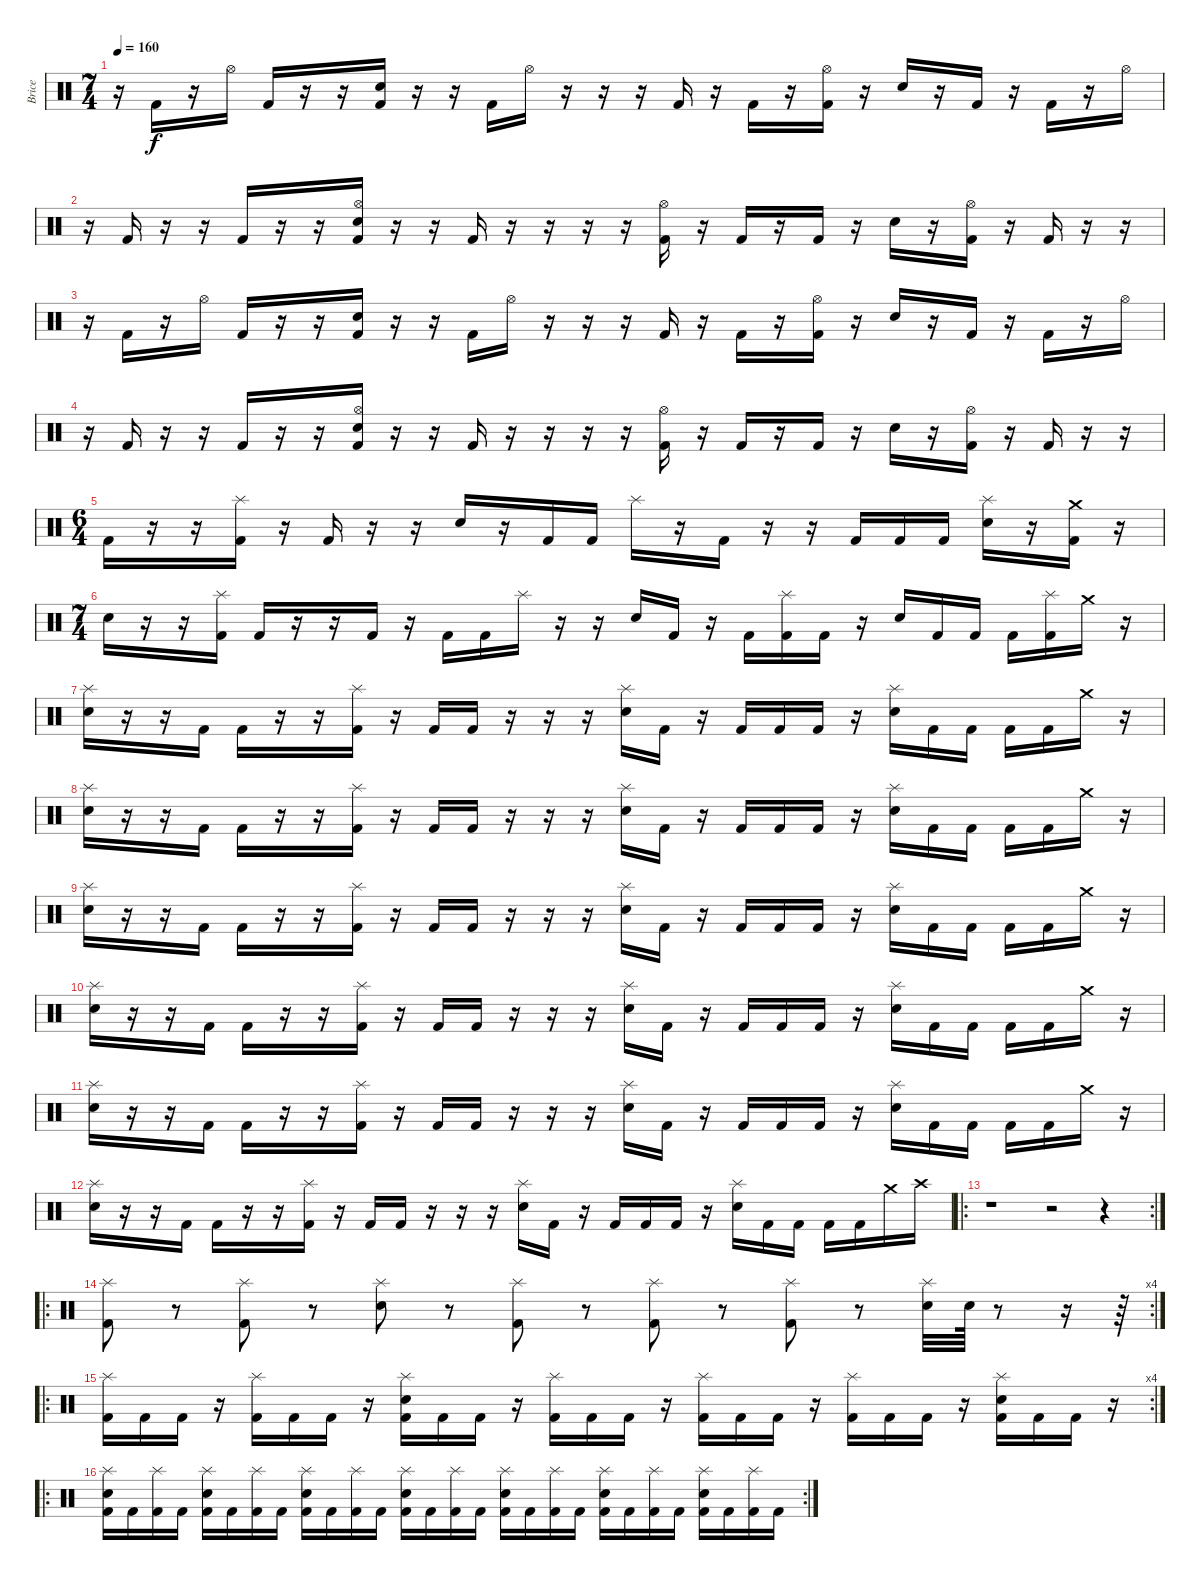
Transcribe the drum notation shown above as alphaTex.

\track ("Brice" "Brice") {instrument percussion}
\staff {score}
\articulation defaults
\ts (7 4)
\tempo 160
\clef neutral
\ks c
r.16{dy f} "Kick (hit) 2".16 r.16 "Hi-Hat (open)".16 "Kick (hit) 2".16 r.16 r.16 ("Electric Snare (hit)" "Kick (hit) 2").16 r.16 r.16 "Kick (hit) 2".16 "Hi-Hat (open)".16 r.16 r.16 r.16 "Kick (hit) 2".16 r.16 "Kick (hit) 2".16 r.16 ("Hi-Hat (open)" "Kick (hit) 2").16 r.16 "Electric Snare (hit)".16 r.16 "Kick (hit) 2".16 r.16 "Kick (hit) 2".16 r.16 "Hi-Hat (open)".16 |
r.16 "Kick (hit) 2".16 r.16 r.16 "Kick (hit) 2".16 r.16 r.16 ("Hi-Hat (open)" "Electric Snare (hit)" "Kick (hit) 2").16 r.16 r.16 "Kick (hit) 2".16 r.16 r.16 r.16 r.16 ("Hi-Hat (open)" "Kick (hit) 2").16 r.16 "Kick (hit) 2".16 r.16 "Kick (hit) 2".16 r.16 "Electric Snare (hit)".16 r.16 ("Hi-Hat (open)" "Kick (hit) 2").16 r.16 "Kick (hit) 2".16 r.16 r.16 |
r.16 "Kick (hit) 2".16 r.16 "Hi-Hat (open)".16 "Kick (hit) 2".16 r.16 r.16 ("Electric Snare (hit)" "Kick (hit) 2").16 r.16 r.16 "Kick (hit) 2".16 "Hi-Hat (open)".16 r.16 r.16 r.16 "Kick (hit) 2".16 r.16 "Kick (hit) 2".16 r.16 ("Hi-Hat (open)" "Kick (hit) 2").16 r.16 "Electric Snare (hit)".16 r.16 "Kick (hit) 2".16 r.16 "Kick (hit) 2".16 r.16 "Hi-Hat (open)".16 |
r.16 "Kick (hit) 2".16 r.16 r.16 "Kick (hit) 2".16 r.16 r.16 ("Hi-Hat (open)" "Electric Snare (hit)" "Kick (hit) 2").16 r.16 r.16 "Kick (hit) 2".16 r.16 r.16 r.16 r.16 ("Hi-Hat (open)" "Kick (hit) 2").16 r.16 "Kick (hit) 2".16 r.16 "Kick (hit) 2".16 r.16 "Electric Snare (hit)".16 r.16 ("Hi-Hat (open)" "Kick (hit) 2").16 r.16 "Kick (hit) 2".16 r.16 r.16 |
\ts (6 4)
"Kick (hit) 2".16 r.16 r.16 ("Splash (hit)" "Kick (hit) 2").16 r.16 "Kick (hit) 2".16 r.16 r.16 "Electric Snare (hit)".16 r.16 "Kick (hit) 2".16 "Kick (hit) 2".16 "Splash (hit)".16 r.16 "Kick (hit) 2".16 r.16 r.16 "Kick (hit) 2".16 "Kick (hit) 2".16 "Kick (hit) 2".16 ("Splash (hit)" "Electric Snare (hit)").16 r.16 ("Crash medium (hit)" "Kick (hit) 2").16 r.16 |
\ts (7 4)
"Electric Snare (hit)".16 r.16 r.16 ("Splash (hit)" "Kick (hit) 2").16 "Kick (hit) 2".16 r.16 r.16 "Kick (hit) 2".16 r.16 "Kick (hit) 2".16 "Kick (hit) 2".16 "Splash (hit)".16 r.16 r.16 "Electric Snare (hit)".16 "Kick (hit) 2".16 r.16 "Kick (hit) 2".16 ("Splash (hit)" "Kick (hit) 2").16 "Kick (hit) 2".16 r.16 "Electric Snare (hit)".16 "Kick (hit) 2".16 "Kick (hit) 2".16 "Kick (hit) 2".16 ("Splash (hit)" "Kick (hit) 2").16 "Crash medium (hit)".16 r.16 |
("Splash (hit)" "Electric Snare (hit)").16 r.16 r.16 "Kick (hit) 2".16 "Kick (hit) 2".16 r.16 r.16 ("Splash (hit)" "Kick (hit) 2").16 r.16 "Kick (hit) 2".16 "Kick (hit) 2".16 r.16 r.16 r.16 ("Splash (hit)" "Electric Snare (hit)").16 "Kick (hit) 2".16 r.16 "Kick (hit) 2".16 "Kick (hit) 2".16 "Kick (hit) 2".16 r.16 ("Splash (hit)" "Electric Snare (hit)").16 "Kick (hit) 2".16 "Kick (hit) 2".16 "Kick (hit) 2".16 "Kick (hit) 2".16 "Crash medium (hit)".16 r.16 |
("Splash (hit)" "Electric Snare (hit)").16 r.16 r.16 "Kick (hit) 2".16 "Kick (hit) 2".16 r.16 r.16 ("Splash (hit)" "Kick (hit) 2").16 r.16 "Kick (hit) 2".16 "Kick (hit) 2".16 r.16 r.16 r.16 ("Splash (hit)" "Electric Snare (hit)").16 "Kick (hit) 2".16 r.16 "Kick (hit) 2".16 "Kick (hit) 2".16 "Kick (hit) 2".16 r.16 ("Splash (hit)" "Electric Snare (hit)").16 "Kick (hit) 2".16 "Kick (hit) 2".16 "Kick (hit) 2".16 "Kick (hit) 2".16 "Crash medium (hit)".16 r.16 |
("Splash (hit)" "Electric Snare (hit)").16 r.16 r.16 "Kick (hit) 2".16 "Kick (hit) 2".16 r.16 r.16 ("Splash (hit)" "Kick (hit) 2").16 r.16 "Kick (hit) 2".16 "Kick (hit) 2".16 r.16 r.16 r.16 ("Splash (hit)" "Electric Snare (hit)").16 "Kick (hit) 2".16 r.16 "Kick (hit) 2".16 "Kick (hit) 2".16 "Kick (hit) 2".16 r.16 ("Splash (hit)" "Electric Snare (hit)").16 "Kick (hit) 2".16 "Kick (hit) 2".16 "Kick (hit) 2".16 "Kick (hit) 2".16 "Crash medium (hit)".16 r.16 |
("Splash (hit)" "Electric Snare (hit)").16 r.16 r.16 "Kick (hit) 2".16 "Kick (hit) 2".16 r.16 r.16 ("Splash (hit)" "Kick (hit) 2").16 r.16 "Kick (hit) 2".16 "Kick (hit) 2".16 r.16 r.16 r.16 ("Splash (hit)" "Electric Snare (hit)").16 "Kick (hit) 2".16 r.16 "Kick (hit) 2".16 "Kick (hit) 2".16 "Kick (hit) 2".16 r.16 ("Splash (hit)" "Electric Snare (hit)").16 "Kick (hit) 2".16 "Kick (hit) 2".16 "Kick (hit) 2".16 "Kick (hit) 2".16 "Crash medium (hit)".16 r.16 |
("Splash (hit)" "Electric Snare (hit)").16 r.16 r.16 "Kick (hit) 2".16 "Kick (hit) 2".16 r.16 r.16 ("Splash (hit)" "Kick (hit) 2").16 r.16 "Kick (hit) 2".16 "Kick (hit) 2".16 r.16 r.16 r.16 ("Splash (hit)" "Electric Snare (hit)").16 "Kick (hit) 2".16 r.16 "Kick (hit) 2".16 "Kick (hit) 2".16 "Kick (hit) 2".16 r.16 ("Splash (hit)" "Electric Snare (hit)").16 "Kick (hit) 2".16 "Kick (hit) 2".16 "Kick (hit) 2".16 "Kick (hit) 2".16 "Crash medium (hit)".16 r.16 |
("Splash (hit)" "Electric Snare (hit)").16 r.16 r.16 "Kick (hit) 2".16 "Kick (hit) 2".16 r.16 r.16 ("Splash (hit)" "Kick (hit) 2").16 r.16 "Kick (hit) 2".16 "Kick (hit) 2".16 r.16 r.16 r.16 ("Splash (hit)" "Electric Snare (hit)").16 "Kick (hit) 2".16 r.16 "Kick (hit) 2".16 "Kick (hit) 2".16 "Kick (hit) 2".16 r.16 ("Splash (hit)" "Electric Snare (hit)").16 "Kick (hit) 2".16 "Kick (hit) 2".16 "Kick (hit) 2".16 "Kick (hit) 2".16 "Crash medium (hit)".16 "Crash high (hit)".16 |
\ro
\rc 2
r.1 r.2 r.4 |
\ro
\rc 4
("Splash (hit)" "Kick (hit) 2").8 r.8 ("Splash (hit)" "Kick (hit) 2").8 r.8 ("Splash (hit)" "Electric Snare (hit)").8 r.8 ("Splash (hit)" "Kick (hit) 2").8 r.8 ("Splash (hit)" "Kick (hit) 2").8 r.8 ("Splash (hit)" "Kick (hit) 2").8 r.8 ("Splash (hit)" "Electric Snare (hit)").32 "Electric Snare (hit)".64 r.8 r.16 r.64 |
\ro
\rc 4
("Splash (hit)" "Kick (hit) 2").16 "Kick (hit) 2".16 "Kick (hit) 2".16 r.16 ("Splash (hit)" "Kick (hit) 2").16 "Kick (hit) 2".16 "Kick (hit) 2".16 r.16 ("Splash (hit)" "Electric Snare (hit)" "Kick (hit) 2").16 "Kick (hit) 2".16 "Kick (hit) 2".16 r.16 ("Splash (hit)" "Kick (hit) 2").16 "Kick (hit) 2".16 "Kick (hit) 2".16 r.16 ("Splash (hit)" "Kick (hit) 2").16 "Kick (hit) 2".16 "Kick (hit) 2".16 r.16 ("Splash (hit)" "Kick (hit) 2").16 "Kick (hit) 2".16 "Kick (hit) 2".16 r.16 ("Splash (hit)" "Electric Snare (hit)" "Kick (hit) 2").16 "Kick (hit) 2".16 "Kick (hit) 2".16 r.16 |
\ro
\rc 2
("Splash (hit)" "Electric Snare (hit)" "Kick (hit) 2").16 "Kick (hit) 2".16 ("Splash (hit)" "Kick (hit) 2").16 "Kick (hit) 2".16 ("Splash (hit)" "Electric Snare (hit)" "Kick (hit) 2").16 "Kick (hit) 2".16 ("Splash (hit)" "Kick (hit) 2").16 "Kick (hit) 2".16 ("Splash (hit)" "Electric Snare (hit)" "Kick (hit) 2").16 "Kick (hit) 2".16 ("Splash (hit)" "Kick (hit) 2").16 "Kick (hit) 2".16 ("Splash (hit)" "Electric Snare (hit)" "Kick (hit) 2").16 "Kick (hit) 2".16 ("Splash (hit)" "Kick (hit) 2").16 "Kick (hit) 2".16 ("Splash (hit)" "Electric Snare (hit)" "Kick (hit) 2").16 "Kick (hit) 2".16 ("Splash (hit)" "Kick (hit) 2").16 "Kick (hit) 2".16 ("Splash (hit)" "Electric Snare (hit)" "Kick (hit) 2").16 "Kick (hit) 2".16 ("Splash (hit)" "Kick (hit) 2").16 "Kick (hit) 2".16 ("Splash (hit)" "Electric Snare (hit)" "Kick (hit) 2").16 "Kick (hit) 2".16 ("Splash (hit)" "Kick (hit) 2").16 "Kick (hit) 2".16
